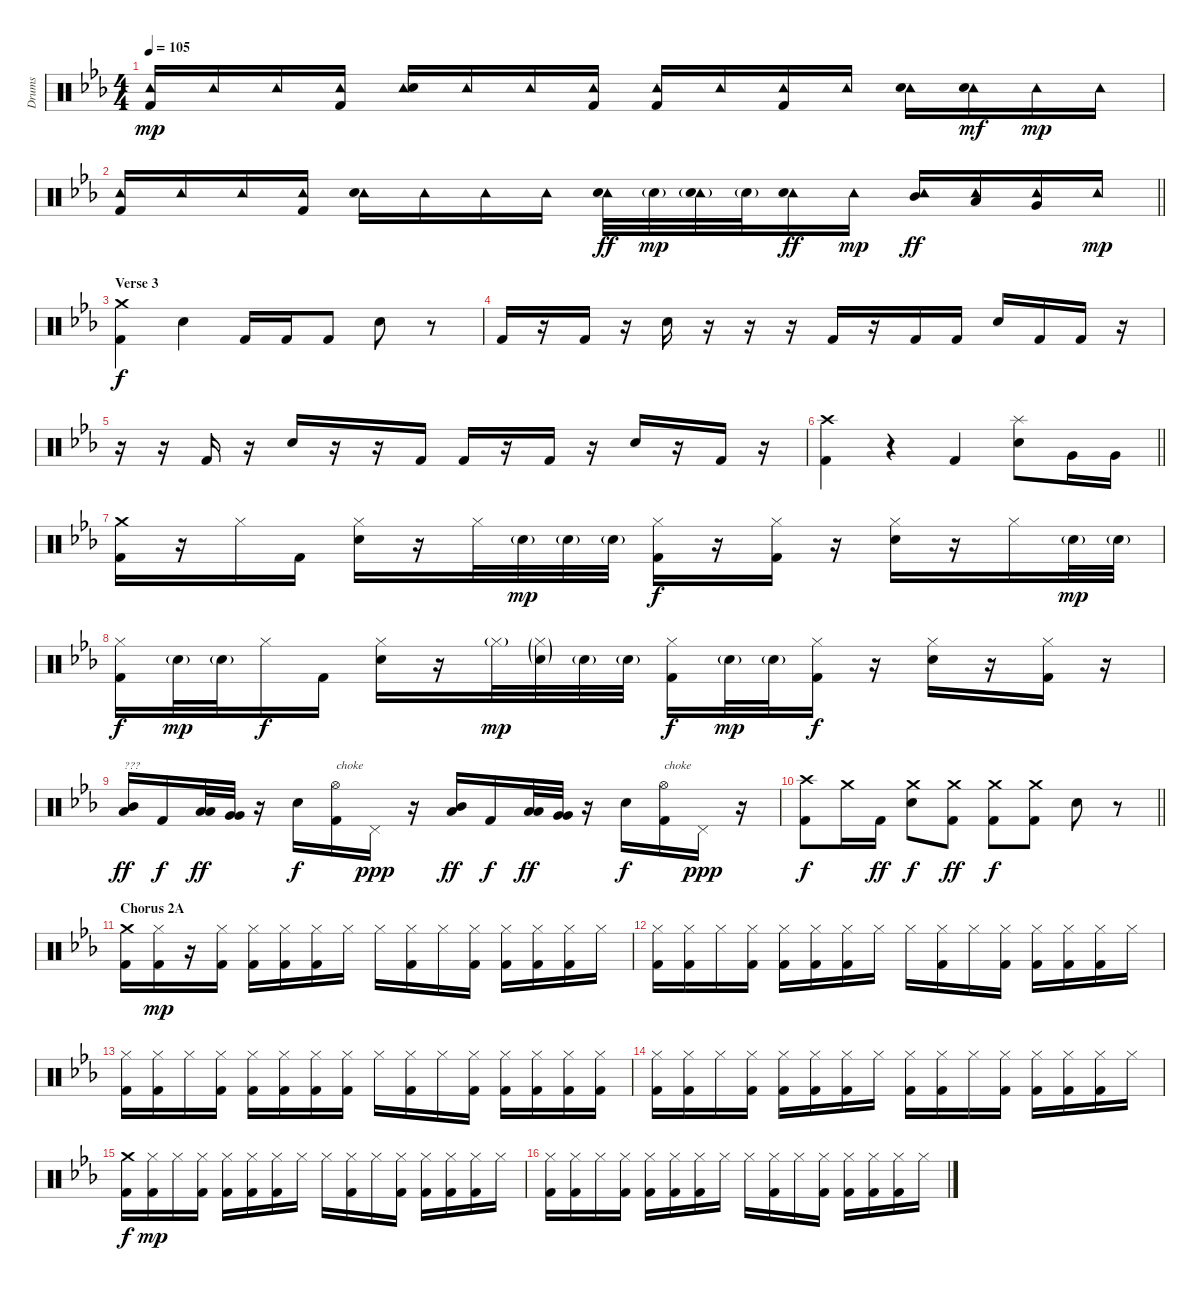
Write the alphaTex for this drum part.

\track ("Drums" "Drums") {instrument percussion}
\staff {score}
\articulation defaults
\ts (4 4)
\tempo 105
\clef neutral
\ks eb
("Tambourine (hit)" "Kick (hit) 2").16{dy mp} "Tambourine (hit)".16 "Tambourine (hit)".16 ("Tambourine (hit)" "Kick (hit) 2").16 ("Tambourine (hit)" "Electric Snare (hit)").16 "Tambourine (hit)".16 "Tambourine (hit)".16 ("Tambourine (hit)" "Kick (hit) 2").16 ("Tambourine (hit)" "Kick (hit) 2").16 "Tambourine (hit)".16 ("Tambourine (hit)" "Kick (hit) 2").16 "Tambourine (hit)".16 ("Tambourine (hit)" "Electric Snare (hit)").16 ("Tambourine (hit)" "Electric Snare (hit)").16{dy mf} "Tambourine (hit)".16{dy mp} "Tambourine (hit)".16 |
\barLineRight lightlight
("Tambourine (hit)" "Kick (hit) 2").16 "Tambourine (hit)".16 "Tambourine (hit)".16 ("Tambourine (hit)" "Kick (hit) 2").16 ("Tambourine (hit)" "Electric Snare (hit)").16 "Tambourine (hit)".16 "Tambourine (hit)".16 "Tambourine (hit)".16 ("Tambourine (hit)" "Electric Snare (hit)").32{dy ff} "Electric Snare (hit)"{g}.32{dy mp} ("Tambourine (hit)" "Electric Snare (hit)"{g}).32 "Electric Snare (hit)"{g}.32 ("Tambourine (hit)" "Electric Snare (hit)").16{dy ff} "Tambourine (hit)".16{dy mp} ("Tambourine (hit)" "Mid Tom (hit)").16{dy ff} ("Tambourine (hit)" "Low Tom (hit)").16 ("Tambourine (hit)" "Very Low Tom (hit)").16 "Tambourine (hit)".16{dy mp} |
\section ("" "Verse 3")
("Crash medium (hit)" "Kick (hit) 2").4{dy f} "Electric Snare (hit)".4 "Kick (hit) 2".16 "Kick (hit) 2".16 "Kick (hit) 2".8 "Electric Snare (hit)".8 r.8 |
"Kick (hit) 2".16 r.16 "Kick (hit) 2".16 r.16 "Electric Snare (hit)".16 r.16 r.16 r.16 "Kick (hit) 2".16 r.16 "Kick (hit) 2".16 "Kick (hit) 2".16 "Electric Snare (hit)".16 "Kick (hit) 2".16 "Kick (hit) 2".16 r.16 |
r.16 r.16 "Kick (hit) 2".16 r.16 "Electric Snare (hit)".16 r.16 r.16 "Kick (hit) 2".16 "Kick (hit) 2".16 r.16 "Kick (hit) 2".16 r.16 "Electric Snare (hit)".16 r.16 "Kick (hit) 2".16 r.16 |
\barLineRight lightlight
("Crash high (hit)" "Kick (hit) 2").4 r.4 "Kick (hit) 2".4 ("Splash (hit)" "Electric Snare (hit)").8 "Very Low Tom (hit)".16 "Very Low Tom (hit)".16 |
("Crash medium (hit)" "Kick (hit) 2").16 r.16 "Hi-Hat (closed)".16 "Kick (hit) 2".16 ("Hi-Hat (closed)" "Electric Snare (hit)").16 r.16 "Hi-Hat (closed)".32 "Electric Snare (hit)"{g}.32{dy mp} "Electric Snare (hit)"{g}.32 "Electric Snare (hit)"{g}.32 ("Hi-Hat (closed)" "Kick (hit) 2").16{dy f} r.16 ("Hi-Hat (closed)" "Kick (hit) 2").16 r.16 ("Hi-Hat (closed)" "Electric Snare (hit)").16 r.16 "Hi-Hat (closed)".16 "Electric Snare (hit)"{g}.32{dy mp} "Electric Snare (hit)"{g}.32 |
("Hi-Hat (closed)" "Kick (hit) 2").16{dy f} "Electric Snare (hit)"{g}.32{dy mp} "Electric Snare (hit)"{g}.32 "Hi-Hat (closed)".16{dy f} "Kick (hit) 2".16 ("Hi-Hat (closed)" "Electric Snare (hit)").16 r.16 "Hi-Hat (closed)"{g}.32{dy mp} ("Hi-Hat (closed)"{g} "Electric Snare (hit)"{g}).32 "Electric Snare (hit)"{g}.32 "Electric Snare (hit)"{g}.32 ("Hi-Hat (closed)" "Kick (hit) 2").16{dy f} "Electric Snare (hit)"{g}.32{dy mp} "Electric Snare (hit)"{g}.32 ("Hi-Hat (closed)" "Kick (hit) 2").16{dy f} r.16 ("Hi-Hat (closed)" "Electric Snare (hit)").16 r.16 ("Hi-Hat (closed)" "Kick (hit) 2").16 r.16 |
("Mid Tom (hit)" "Low Tom (hit)").16{bu 240 txt "???" dy ff} "Kick (hit) 2".16{dy f} ("Low Tom (hit)" "Low Tom (hit)").32{dy ff} ("Very Low Tom (hit)" "Very Low Tom (hit)").32 r.16 "Electric Snare (hit)".16{dy f} ("Hi-Hat (open)" "Kick (hit) 2").16{txt "choke"} "Pedal Hi-Hat (hit)".16{dy ppp} r.16 ("Mid Tom (hit)" "Low Tom (hit)").16{bu 240 dy ff} "Kick (hit) 2".16{dy f} ("Low Tom (hit)" "Low Tom (hit)").32{dy ff} ("Very Low Tom (hit)" "Very Low Tom (hit)").32 r.16 "Electric Snare (hit)".16{dy f} ("Hi-Hat (open)" "Kick (hit) 2").16{txt "choke"} "Pedal Hi-Hat (hit)".16{dy ppp} r.16 |
\barLineRight lightlight
("Crash high (hit)" "Kick (hit) 2").8{dy f} "Crash medium (hit)".16 "Kick (hit) 2".16{dy ff} ("Crash medium (hit)" "Electric Snare (hit)").8{dy f} ("Crash medium (hit)" "Kick (hit) 2").8{dy ff} ("Crash medium (hit)" "Kick (hit) 2").8{dy f} ("Crash medium (hit)" "Kick (hit) 2").8 "Electric Snare (hit)".8 r.8 |
\section ("" "Chorus 2A")
("Crash medium (hit)" "Kick (hit) 2").16 ("Hi-Hat (closed)" "Kick (hit) 2").16{dy mp} r.16 ("Hi-Hat (closed)" "Kick (hit) 2").16 ("Hi-Hat (closed)" "Kick (hit) 2").16 ("Hi-Hat (closed)" "Kick (hit) 2").16 ("Hi-Hat (closed)" "Kick (hit) 2").16 "Hi-Hat (closed)".16 "Hi-Hat (closed)".16 ("Hi-Hat (closed)" "Kick (hit) 2").16 "Hi-Hat (closed)".16 ("Hi-Hat (closed)" "Kick (hit) 2").16 ("Hi-Hat (closed)" "Kick (hit) 2").16 ("Hi-Hat (closed)" "Kick (hit) 2").16 ("Hi-Hat (closed)" "Kick (hit) 2").16 "Hi-Hat (closed)".16 |
("Hi-Hat (closed)" "Kick (hit) 2").16 ("Hi-Hat (closed)" "Kick (hit) 2").16 "Hi-Hat (closed)".16 ("Hi-Hat (closed)" "Kick (hit) 2").16 ("Hi-Hat (closed)" "Kick (hit) 2").16 ("Hi-Hat (closed)" "Kick (hit) 2").16 ("Hi-Hat (closed)" "Kick (hit) 2").16 "Hi-Hat (closed)".16 "Hi-Hat (closed)".16 ("Hi-Hat (closed)" "Kick (hit) 2").16 "Hi-Hat (closed)".16 ("Hi-Hat (closed)" "Kick (hit) 2").16 ("Hi-Hat (closed)" "Kick (hit) 2").16 ("Hi-Hat (closed)" "Kick (hit) 2").16 ("Hi-Hat (closed)" "Kick (hit) 2").16 "Hi-Hat (closed)".16 |
("Hi-Hat (closed)" "Kick (hit) 2").16 ("Hi-Hat (closed)" "Kick (hit) 2").16 "Hi-Hat (closed)".16 ("Hi-Hat (closed)" "Kick (hit) 2").16 ("Hi-Hat (closed)" "Kick (hit) 2").16 ("Hi-Hat (closed)" "Kick (hit) 2").16 ("Hi-Hat (closed)" "Kick (hit) 2").16 ("Hi-Hat (closed)" "Kick (hit) 2").16 "Hi-Hat (closed)".16 ("Hi-Hat (closed)" "Kick (hit) 2").16 "Hi-Hat (closed)".16 ("Hi-Hat (closed)" "Kick (hit) 2").16 ("Hi-Hat (closed)" "Kick (hit) 2").16 ("Hi-Hat (closed)" "Kick (hit) 2").16 ("Hi-Hat (closed)" "Kick (hit) 2").16 ("Hi-Hat (closed)" "Kick (hit) 2").16 |
("Hi-Hat (closed)" "Kick (hit) 2").16 ("Hi-Hat (closed)" "Kick (hit) 2").16 "Hi-Hat (closed)".16 ("Hi-Hat (closed)" "Kick (hit) 2").16 ("Hi-Hat (closed)" "Kick (hit) 2").16 ("Hi-Hat (closed)" "Kick (hit) 2").16 ("Hi-Hat (closed)" "Kick (hit) 2").16 "Hi-Hat (closed)".16 ("Hi-Hat (closed)" "Kick (hit) 2").16 ("Hi-Hat (closed)" "Kick (hit) 2").16 "Hi-Hat (closed)".16 ("Hi-Hat (closed)" "Kick (hit) 2").16 ("Hi-Hat (closed)" "Kick (hit) 2").16 ("Hi-Hat (closed)" "Kick (hit) 2").16 ("Hi-Hat (closed)" "Kick (hit) 2").16 "Hi-Hat (closed)".16 |
("Crash medium (hit)" "Kick (hit) 2").16{dy f} ("Hi-Hat (closed)" "Kick (hit) 2").16{dy mp} "Hi-Hat (closed)".16 ("Hi-Hat (closed)" "Kick (hit) 2").16 ("Hi-Hat (closed)" "Kick (hit) 2").16 ("Hi-Hat (closed)" "Kick (hit) 2").16 ("Hi-Hat (closed)" "Kick (hit) 2").16 "Hi-Hat (closed)".16 "Hi-Hat (closed)".16 ("Hi-Hat (closed)" "Kick (hit) 2").16 "Hi-Hat (closed)".16 ("Hi-Hat (closed)" "Kick (hit) 2").16 ("Hi-Hat (closed)" "Kick (hit) 2").16 ("Hi-Hat (closed)" "Kick (hit) 2").16 ("Hi-Hat (closed)" "Kick (hit) 2").16 "Hi-Hat (closed)".16 |
("Hi-Hat (closed)" "Kick (hit) 2").16 ("Hi-Hat (closed)" "Kick (hit) 2").16 "Hi-Hat (closed)".16 ("Hi-Hat (closed)" "Kick (hit) 2").16 ("Hi-Hat (closed)" "Kick (hit) 2").16 ("Hi-Hat (closed)" "Kick (hit) 2").16 ("Hi-Hat (closed)" "Kick (hit) 2").16 "Hi-Hat (closed)".16 "Hi-Hat (closed)".16 ("Hi-Hat (closed)" "Kick (hit) 2").16 "Hi-Hat (closed)".16 ("Hi-Hat (closed)" "Kick (hit) 2").16 ("Hi-Hat (closed)" "Kick (hit) 2").16 ("Hi-Hat (closed)" "Kick (hit) 2").16 ("Hi-Hat (closed)" "Kick (hit) 2").16 "Hi-Hat (closed)".16
